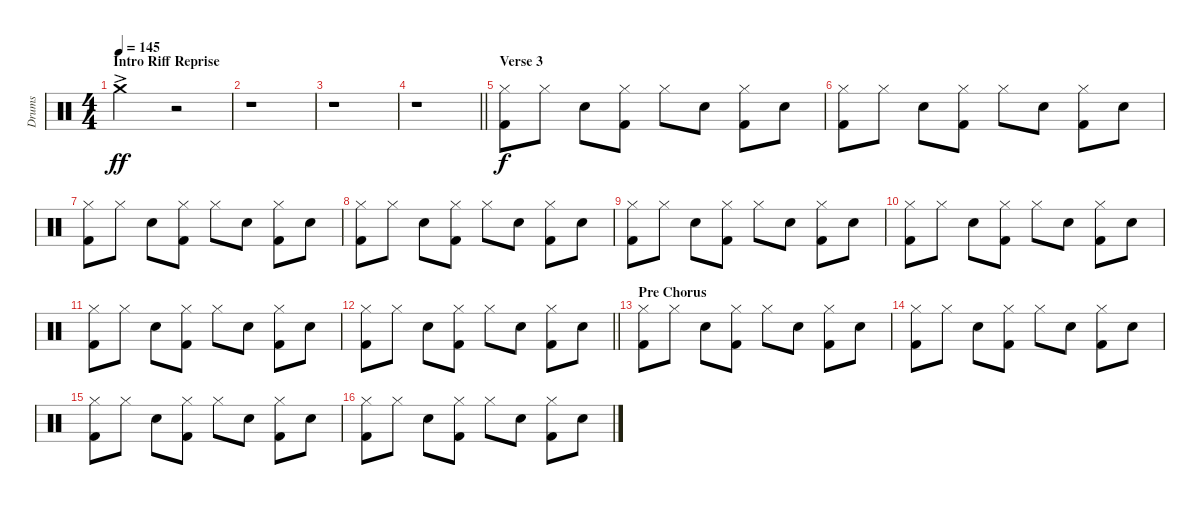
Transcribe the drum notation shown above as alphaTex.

\track ("Drums" "Drums") {instrument percussion}
\staff {score}
\articulation defaults
\ts (4 4)
\section ("" "Intro Riff Reprise")
\tempo 145
\clef neutral
\ks c "Crash medium (hit)"{ac}.2{dy ff}
r.2 |
r.1 |
r.1 |
\barLineRight lightlight
r.1 |
\section ("" "Verse 3")
("Hi-Hat (closed)" "Kick (hit) 2").8{dy f} "Hi-Hat (closed)".8 "Snare (hit) 2".8 ("Hi-Hat (closed)" "Kick (hit) 2").8 "Hi-Hat (closed)".8 "Snare (hit) 2".8 ("Hi-Hat (closed)" "Kick (hit) 2").8 "Snare (hit) 2".8 |
("Hi-Hat (closed)" "Kick (hit) 2").8 "Hi-Hat (closed)".8 "Snare (hit) 2".8 ("Hi-Hat (closed)" "Kick (hit) 2").8 "Hi-Hat (closed)".8 "Snare (hit) 2".8 ("Hi-Hat (closed)" "Kick (hit) 2").8 "Snare (hit) 2".8 |
("Hi-Hat (closed)" "Kick (hit) 2").8 "Hi-Hat (closed)".8 "Snare (hit) 2".8 ("Hi-Hat (closed)" "Kick (hit) 2").8 "Hi-Hat (closed)".8 "Snare (hit) 2".8 ("Hi-Hat (closed)" "Kick (hit) 2").8 "Snare (hit) 2".8 |
("Hi-Hat (closed)" "Kick (hit) 2").8 "Hi-Hat (closed)".8 "Snare (hit) 2".8 ("Hi-Hat (closed)" "Kick (hit) 2").8 "Hi-Hat (closed)".8 "Snare (hit) 2".8 ("Hi-Hat (closed)" "Kick (hit) 2").8 "Snare (hit) 2".8 |
("Hi-Hat (closed)" "Kick (hit) 2").8 "Hi-Hat (closed)".8 "Snare (hit) 2".8 ("Hi-Hat (closed)" "Kick (hit) 2").8 "Hi-Hat (closed)".8 "Snare (hit) 2".8 ("Hi-Hat (closed)" "Kick (hit) 2").8 "Snare (hit) 2".8 |
("Hi-Hat (closed)" "Kick (hit) 2").8 "Hi-Hat (closed)".8 "Snare (hit) 2".8 ("Hi-Hat (closed)" "Kick (hit) 2").8 "Hi-Hat (closed)".8 "Snare (hit) 2".8 ("Hi-Hat (closed)" "Kick (hit) 2").8 "Snare (hit) 2".8 |
("Hi-Hat (closed)" "Kick (hit) 2").8 "Hi-Hat (closed)".8 "Snare (hit) 2".8 ("Hi-Hat (closed)" "Kick (hit) 2").8 "Hi-Hat (closed)".8 "Snare (hit) 2".8 ("Hi-Hat (closed)" "Kick (hit) 2").8 "Snare (hit) 2".8 |
\barLineRight lightlight
("Hi-Hat (closed)" "Kick (hit) 2").8 "Hi-Hat (closed)".8 "Snare (hit) 2".8 ("Hi-Hat (closed)" "Kick (hit) 2").8 "Hi-Hat (closed)".8 "Snare (hit) 2".8 ("Hi-Hat (closed)" "Kick (hit) 2").8 "Snare (hit) 2".8 |
\section ("" "Pre Chorus")
("Hi-Hat (closed)" "Kick (hit) 2").8 "Hi-Hat (closed)".8 "Snare (hit) 2".8 ("Hi-Hat (closed)" "Kick (hit) 2").8 "Hi-Hat (closed)".8 "Snare (hit) 2".8 ("Hi-Hat (closed)" "Kick (hit) 2").8 "Snare (hit) 2".8 |
("Hi-Hat (closed)" "Kick (hit) 2").8 "Hi-Hat (closed)".8 "Snare (hit) 2".8 ("Hi-Hat (closed)" "Kick (hit) 2").8 "Hi-Hat (closed)".8 "Snare (hit) 2".8 ("Hi-Hat (closed)" "Kick (hit) 2").8 "Snare (hit) 2".8 |
("Hi-Hat (closed)" "Kick (hit) 2").8 "Hi-Hat (closed)".8 "Snare (hit) 2".8 ("Hi-Hat (closed)" "Kick (hit) 2").8 "Hi-Hat (closed)".8 "Snare (hit) 2".8 ("Hi-Hat (closed)" "Kick (hit) 2").8 "Snare (hit) 2".8 |
("Hi-Hat (closed)" "Kick (hit) 2").8 "Hi-Hat (closed)".8 "Snare (hit) 2".8 ("Hi-Hat (closed)" "Kick (hit) 2").8 "Hi-Hat (closed)".8 "Snare (hit) 2".8 ("Hi-Hat (closed)" "Kick (hit) 2").8 "Snare (hit) 2".8
